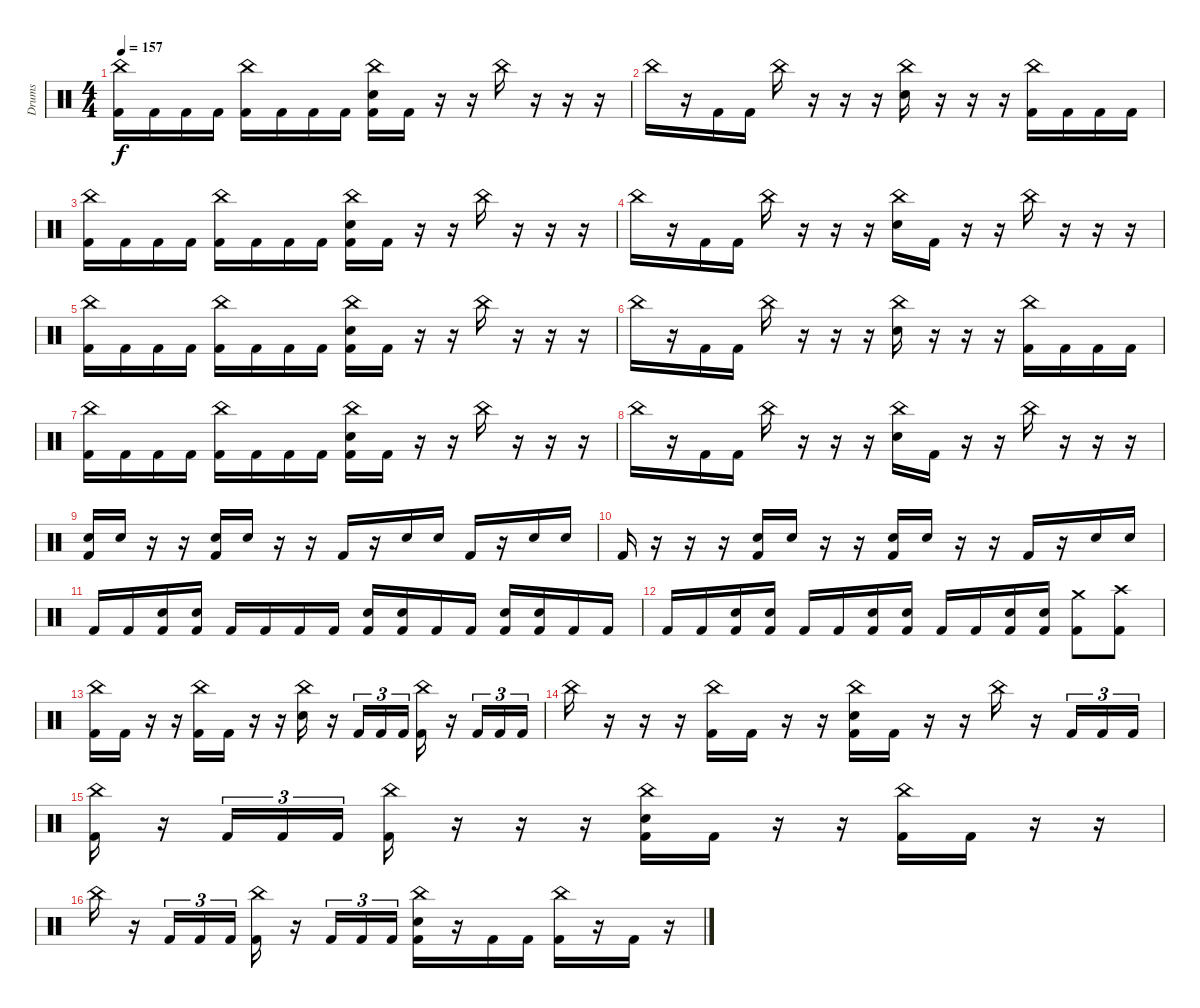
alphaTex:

\track ("Drums" "Drums") {instrument percussion}
\staff {score}
\articulation defaults
\ts (4 4)
\tempo 157
\clef neutral
\ks c
("China (hit)" "Kick (hit) 2").16{dy f} "Kick (hit) 2".16 "Kick (hit) 2".16 "Kick (hit) 2".16 ("China (hit)" "Kick (hit) 2").16 "Kick (hit) 2".16 "Kick (hit) 2".16 "Kick (hit) 2".16 ("China (hit)" "Electric Snare (hit)" "Kick (hit) 2").16 "Kick (hit) 2".16 r.16 r.16 "China (hit)".16 r.16 r.16 r.16 |
"China (hit)".16 r.16 "Kick (hit) 2".16 "Kick (hit) 2".16 "China (hit)".16 r.16 r.16 r.16 ("China (hit)" "Electric Snare (hit)").16 r.16 r.16 r.16 ("China (hit)" "Kick (hit) 2").16 "Kick (hit) 2".16 "Kick (hit) 2".16 "Kick (hit) 2".16 |
("China (hit)" "Kick (hit) 2").16 "Kick (hit) 2".16 "Kick (hit) 2".16 "Kick (hit) 2".16 ("China (hit)" "Kick (hit) 2").16 "Kick (hit) 2".16 "Kick (hit) 2".16 "Kick (hit) 2".16 ("China (hit)" "Electric Snare (hit)" "Kick (hit) 2").16 "Kick (hit) 2".16 r.16 r.16 "China (hit)".16 r.16 r.16 r.16 |
"China (hit)".16 r.16 "Kick (hit) 2".16 "Kick (hit) 2".16 "China (hit)".16 r.16 r.16 r.16 ("China (hit)" "Electric Snare (hit)").16 "Kick (hit) 2".16 r.16 r.16 "China (hit)".16 r.16 r.16 r.16 |
("China (hit)" "Kick (hit) 2").16 "Kick (hit) 2".16 "Kick (hit) 2".16 "Kick (hit) 2".16 ("China (hit)" "Kick (hit) 2").16 "Kick (hit) 2".16 "Kick (hit) 2".16 "Kick (hit) 2".16 ("China (hit)" "Electric Snare (hit)" "Kick (hit) 2").16 "Kick (hit) 2".16 r.16 r.16 "China (hit)".16 r.16 r.16 r.16 |
"China (hit)".16 r.16 "Kick (hit) 2".16 "Kick (hit) 2".16 "China (hit)".16 r.16 r.16 r.16 ("China (hit)" "Electric Snare (hit)").16 r.16 r.16 r.16 ("China (hit)" "Kick (hit) 2").16 "Kick (hit) 2".16 "Kick (hit) 2".16 "Kick (hit) 2".16 |
("China (hit)" "Kick (hit) 2").16 "Kick (hit) 2".16 "Kick (hit) 2".16 "Kick (hit) 2".16 ("China (hit)" "Kick (hit) 2").16 "Kick (hit) 2".16 "Kick (hit) 2".16 "Kick (hit) 2".16 ("China (hit)" "Electric Snare (hit)" "Kick (hit) 2").16 "Kick (hit) 2".16 r.16 r.16 "China (hit)".16 r.16 r.16 r.16 |
"China (hit)".16 r.16 "Kick (hit) 2".16 "Kick (hit) 2".16 "China (hit)".16 r.16 r.16 r.16 ("China (hit)" "Electric Snare (hit)").16 "Kick (hit) 2".16 r.16 r.16 "China (hit)".16 r.16 r.16 r.16 |
("Electric Snare (hit)" "Kick (hit) 2").16 "Electric Snare (hit)".16 r.16 r.16 ("Electric Snare (hit)" "Kick (hit) 2").16 "Electric Snare (hit)".16 r.16 r.16 "Kick (hit) 2".16 r.16 "Electric Snare (hit)".16 "Electric Snare (hit)".16 "Kick (hit) 2".16 r.16 "Electric Snare (hit)".16 "Electric Snare (hit)".16 |
"Kick (hit) 2".16 r.16 r.16 r.16 ("Electric Snare (hit)" "Kick (hit) 2").16 "Electric Snare (hit)".16 r.16 r.16 ("Electric Snare (hit)" "Kick (hit) 2").16 "Electric Snare (hit)".16 r.16 r.16 "Kick (hit) 2".16 r.16 "Electric Snare (hit)".16 "Electric Snare (hit)".16 |
"Kick (hit) 2".16 "Kick (hit) 2".16 ("Electric Snare (hit)" "Kick (hit) 2").16 ("Electric Snare (hit)" "Kick (hit) 2").16 "Kick (hit) 2".16 "Kick (hit) 2".16 "Kick (hit) 2".16 "Kick (hit) 2".16 ("Electric Snare (hit)" "Kick (hit) 2").16 ("Electric Snare (hit)" "Kick (hit) 2").16 "Kick (hit) 2".16 "Kick (hit) 2".16 ("Electric Snare (hit)" "Kick (hit) 2").16 ("Electric Snare (hit)" "Kick (hit) 2").16 "Kick (hit) 2".16 "Kick (hit) 2".16 |
"Kick (hit) 2".16 "Kick (hit) 2".16 ("Electric Snare (hit)" "Kick (hit) 2").16 ("Electric Snare (hit)" "Kick (hit) 2").16 "Kick (hit) 2".16 "Kick (hit) 2".16 ("Electric Snare (hit)" "Kick (hit) 2").16 ("Electric Snare (hit)" "Kick (hit) 2").16 "Kick (hit) 2".16 "Kick (hit) 2".16 ("Electric Snare (hit)" "Kick (hit) 2").16 ("Electric Snare (hit)" "Kick (hit) 2").16 ("Crash medium (hit)" "Kick (hit) 2").8 ("Crash high (hit)" "Kick (hit) 2").8 |
("China (hit)" "Kick (hit) 2").16 "Kick (hit) 2".16 r.16 r.16 ("China (hit)" "Kick (hit) 2").16 "Kick (hit) 2".16 r.16 r.16 ("China (hit)" "Electric Snare (hit)").16 r.16 "Kick (hit) 2".16{tu (3 2)} "Kick (hit) 2".16{tu (3 2)} "Kick (hit) 2".16{tu (3 2)} ("China (hit)" "Kick (hit) 2").16 r.16 "Kick (hit) 2".16{tu (3 2)} "Kick (hit) 2".16{tu (3 2)} "Kick (hit) 2".16{tu (3 2)} |
"China (hit)".16 r.16 r.16 r.16 ("China (hit)" "Kick (hit) 2").16 "Kick (hit) 2".16 r.16 r.16 ("China (hit)" "Electric Snare (hit)" "Kick (hit) 2").16 "Kick (hit) 2".16 r.16 r.16 "China (hit)".16 r.16 "Kick (hit) 2".16{tu (3 2)} "Kick (hit) 2".16{tu (3 2)} "Kick (hit) 2".16{tu (3 2)} |
("China (hit)" "Kick (hit) 2").16 r.16 "Kick (hit) 2".16{tu (3 2)} "Kick (hit) 2".16{tu (3 2)} "Kick (hit) 2".16{tu (3 2)} ("China (hit)" "Kick (hit) 2").16 r.16 r.16 r.16 ("China (hit)" "Electric Snare (hit)" "Kick (hit) 2").16 "Kick (hit) 2".16 r.16 r.16 ("China (hit)" "Kick (hit) 2").16 "Kick (hit) 2".16 r.16 r.16 |
"China (hit)".16 r.16 "Kick (hit) 2".16{tu (3 2)} "Kick (hit) 2".16{tu (3 2)} "Kick (hit) 2".16{tu (3 2)} ("China (hit)" "Kick (hit) 2").16 r.16 "Kick (hit) 2".16{tu (3 2)} "Kick (hit) 2".16{tu (3 2)} "Kick (hit) 2".16{tu (3 2)} ("China (hit)" "Electric Snare (hit)" "Kick (hit) 2").16 r.16 "Kick (hit) 2".16 "Kick (hit) 2".16 ("China (hit)" "Kick (hit) 2").16 r.16 "Kick (hit) 2".16 r.16
